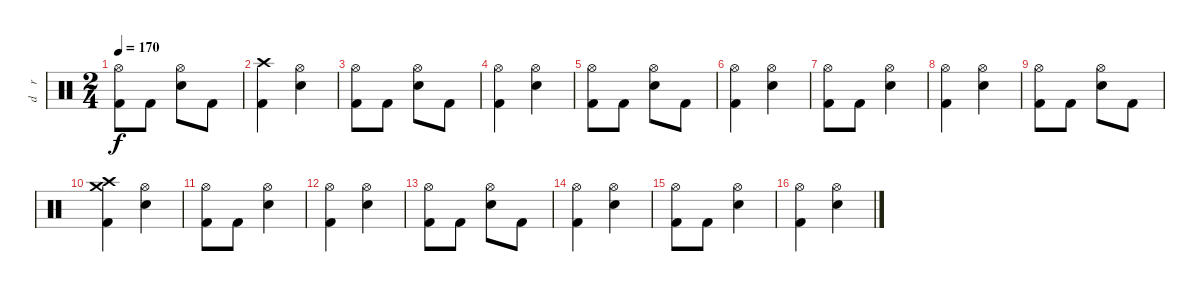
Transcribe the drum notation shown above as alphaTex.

\track ("d    r     u     m    s" "d    r    ") {instrument percussion}
\staff {score}
\articulation defaults
\ts (2 4)
\tempo 170
\clef neutral
\ks c
("Hi-Hat (open)" "Kick (hit) 2").8{dy f} "Kick (hit) 2".8 ("Hi-Hat (open)" "Electric Snare (hit)").8 "Kick (hit) 2".8 |
("Crash high (hit)" "Kick (hit) 2").4 ("Hi-Hat (open)" "Electric Snare (hit)").4 |
("Hi-Hat (open)" "Kick (hit) 2").8 "Kick (hit) 2".8 ("Hi-Hat (open)" "Electric Snare (hit)").8 "Kick (hit) 2".8 |
("Hi-Hat (open)" "Kick (hit) 2").4 ("Hi-Hat (open)" "Electric Snare (hit)").4 |
("Hi-Hat (open)" "Kick (hit) 2").8 "Kick (hit) 2".8 ("Hi-Hat (open)" "Electric Snare (hit)").8 "Kick (hit) 2".8 |
("Hi-Hat (open)" "Kick (hit) 2").4 ("Hi-Hat (open)" "Electric Snare (hit)").4 |
("Hi-Hat (open)" "Kick (hit) 2").8 "Kick (hit) 2".8 ("Hi-Hat (open)" "Electric Snare (hit)").4 |
("Hi-Hat (open)" "Kick (hit) 2").4 ("Hi-Hat (open)" "Electric Snare (hit)").4 |
("Hi-Hat (open)" "Kick (hit) 2").8 "Kick (hit) 2".8 ("Hi-Hat (open)" "Electric Snare (hit)").8 "Kick (hit) 2".8 |
("Crash high (hit)" "Crash medium (hit)" "Kick (hit) 2").4 ("Hi-Hat (open)" "Electric Snare (hit)").4 |
("Hi-Hat (open)" "Kick (hit) 2").8 "Kick (hit) 2".8 ("Hi-Hat (open)" "Electric Snare (hit)").4 |
("Hi-Hat (open)" "Kick (hit) 2").4 ("Hi-Hat (open)" "Electric Snare (hit)").4 |
("Hi-Hat (open)" "Kick (hit) 2").8 "Kick (hit) 2".8 ("Hi-Hat (open)" "Electric Snare (hit)").8 "Kick (hit) 2".8 |
("Hi-Hat (open)" "Kick (hit) 2").4 ("Hi-Hat (open)" "Electric Snare (hit)").4 |
("Hi-Hat (open)" "Kick (hit) 2").8 "Kick (hit) 2".8 ("Hi-Hat (open)" "Electric Snare (hit)").4 |
("Hi-Hat (open)" "Kick (hit) 2").4 ("Hi-Hat (open)" "Electric Snare (hit)").4
